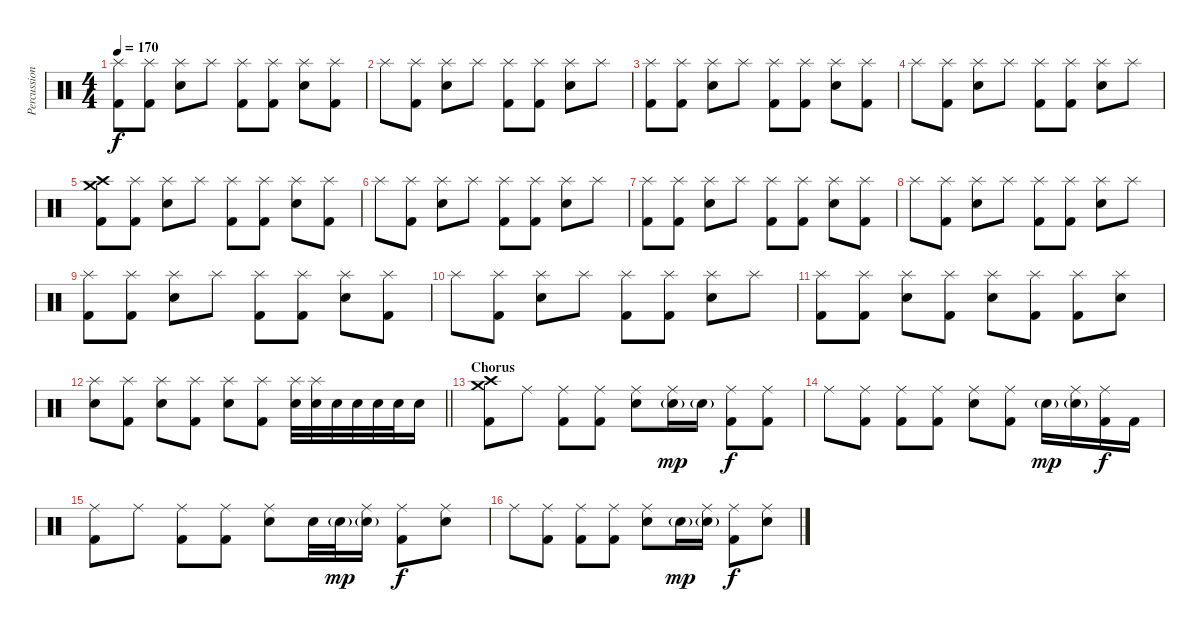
\track ("Percussion" "Percussion") {instrument percussion}
\staff {score}
\articulation defaults
\ts (4 4)
\tempo 170
\clef neutral
\ks c
("Splash (hit)" "Kick (hit) 2").8{dy f} ("Splash (hit)" "Kick (hit) 2").8 ("Splash (hit)" "Electric Snare (hit)").8 "Splash (hit)".8 ("Splash (hit)" "Kick (hit) 2").8 ("Splash (hit)" "Kick (hit) 2").8 ("Splash (hit)" "Electric Snare (hit)").8 ("Splash (hit)" "Kick (hit) 2").8 |
"Splash (hit)".8 ("Splash (hit)" "Kick (hit) 2").8 ("Splash (hit)" "Electric Snare (hit)").8 "Splash (hit)".8 ("Splash (hit)" "Kick (hit) 2").8 ("Splash (hit)" "Kick (hit) 2").8 ("Splash (hit)" "Electric Snare (hit)").8 "Splash (hit)".8 |
("Splash (hit)" "Kick (hit) 2").8 ("Splash (hit)" "Kick (hit) 2").8 ("Splash (hit)" "Electric Snare (hit)").8 "Splash (hit)".8 ("Splash (hit)" "Kick (hit) 2").8 ("Splash (hit)" "Kick (hit) 2").8 ("Splash (hit)" "Electric Snare (hit)").8 ("Splash (hit)" "Kick (hit) 2").8 |
"Splash (hit)".8 ("Splash (hit)" "Kick (hit) 2").8 ("Splash (hit)" "Electric Snare (hit)").8 "Splash (hit)".8 ("Splash (hit)" "Kick (hit) 2").8 ("Splash (hit)" "Kick (hit) 2").8 ("Splash (hit)" "Electric Snare (hit)").8 "Splash (hit)".8 |
("Crash medium (hit)" "Crash high (hit)" "Kick (hit) 2").8 ("Splash (hit)" "Kick (hit) 2").8 ("Splash (hit)" "Electric Snare (hit)").8 "Splash (hit)".8 ("Splash (hit)" "Kick (hit) 2").8 ("Splash (hit)" "Kick (hit) 2").8 ("Splash (hit)" "Electric Snare (hit)").8 ("Splash (hit)" "Kick (hit) 2").8 |
"Splash (hit)".8 ("Splash (hit)" "Kick (hit) 2").8 ("Splash (hit)" "Electric Snare (hit)").8 "Splash (hit)".8 ("Splash (hit)" "Kick (hit) 2").8 ("Splash (hit)" "Kick (hit) 2").8 ("Splash (hit)" "Electric Snare (hit)").8 "Splash (hit)".8 |
("Splash (hit)" "Kick (hit) 2").8 ("Splash (hit)" "Kick (hit) 2").8 ("Splash (hit)" "Electric Snare (hit)").8 "Splash (hit)".8 ("Splash (hit)" "Kick (hit) 2").8 ("Splash (hit)" "Kick (hit) 2").8 ("Splash (hit)" "Electric Snare (hit)").8 ("Splash (hit)" "Kick (hit) 2").8 |
"Splash (hit)".8 ("Splash (hit)" "Kick (hit) 2").8 ("Splash (hit)" "Electric Snare (hit)").8 "Splash (hit)".8 ("Splash (hit)" "Kick (hit) 2").8 ("Splash (hit)" "Kick (hit) 2").8 ("Splash (hit)" "Electric Snare (hit)").8 "Splash (hit)".8 |
("Splash (hit)" "Kick (hit) 2").8 ("Splash (hit)" "Kick (hit) 2").8 ("Splash (hit)" "Electric Snare (hit)").8 "Splash (hit)".8 ("Splash (hit)" "Kick (hit) 2").8 ("Splash (hit)" "Kick (hit) 2").8 ("Splash (hit)" "Electric Snare (hit)").8 ("Splash (hit)" "Kick (hit) 2").8 |
"Splash (hit)".8 ("Splash (hit)" "Kick (hit) 2").8 ("Splash (hit)" "Electric Snare (hit)").8 "Splash (hit)".8 ("Splash (hit)" "Kick (hit) 2").8 ("Splash (hit)" "Kick (hit) 2").8 ("Splash (hit)" "Electric Snare (hit)").8 "Splash (hit)".8 |
("Splash (hit)" "Kick (hit) 2").8 ("Splash (hit)" "Kick (hit) 2").8 ("Splash (hit)" "Electric Snare (hit)").8 ("Splash (hit)" "Kick (hit) 2").8 ("Splash (hit)" "Electric Snare (hit)").8 ("Splash (hit)" "Kick (hit) 2").8 ("Splash (hit)" "Kick (hit) 2").8 ("Splash (hit)" "Electric Snare (hit)").8 |
\barLineRight lightlight
("Splash (hit)" "Electric Snare (hit)").8 ("Splash (hit)" "Kick (hit) 2").8 ("Splash (hit)" "Electric Snare (hit)").8 ("Splash (hit)" "Kick (hit) 2").8 ("Splash (hit)" "Electric Snare (hit)").8 ("Splash (hit)" "Kick (hit) 2").8 ("Splash (hit)" "Electric Snare (hit)").32 ("Splash (hit)" "Electric Snare (hit)").32 "Electric Snare (hit)".32 "Electric Snare (hit)".32 "Electric Snare (hit)".32 "Electric Snare (hit)".32 "Electric Snare (hit)".16 |
\section ("" "Chorus")
("Crash medium (hit)" "Crash high (hit)" "Kick (hit) 2").8 "Ride (middle)".8 ("Ride (middle)" "Kick (hit) 2").8 ("Ride (middle)" "Kick (hit) 2").8 ("Ride (middle)" "Electric Snare (hit)").8 ("Ride (middle)" "Electric Snare (hit)"{g}).16{dy mp} "Electric Snare (hit)"{g}.16 ("Ride (middle)" "Kick (hit) 2").8{dy f} ("Ride (middle)" "Kick (hit) 2").8 |
"Ride (middle)".8 ("Ride (middle)" "Kick (hit) 2").8 ("Ride (middle)" "Kick (hit) 2").8 ("Ride (middle)" "Kick (hit) 2").8 ("Ride (middle)" "Electric Snare (hit)").8 ("Ride (middle)" "Kick (hit) 2").8 "Electric Snare (hit)"{g}.16{dy mp} ("Ride (middle)" "Electric Snare (hit)"{g}).16 ("Ride (middle)" "Kick (hit) 2").16{dy f} "Kick (hit) 2".16 |
("Ride (middle)" "Kick (hit) 2").8 "Ride (middle)".8 ("Ride (middle)" "Kick (hit) 2").8 ("Ride (middle)" "Kick (hit) 2").8 ("Ride (middle)" "Electric Snare (hit)").8 "Electric Snare (hit)".32 "Electric Snare (hit)"{g}.32{dy mp} ("Ride (middle)" "Electric Snare (hit)"{g}).16 ("Ride (middle)" "Kick (hit) 2").8{dy f} ("Ride (middle)" "Electric Snare (hit)").8 |
"Ride (middle)".8 ("Ride (middle)" "Kick (hit) 2").8 ("Ride (middle)" "Kick (hit) 2").8 ("Ride (middle)" "Kick (hit) 2").8 ("Ride (middle)" "Electric Snare (hit)").8 "Electric Snare (hit)"{g}.16{dy mp} ("Ride (middle)" "Electric Snare (hit)"{g}).16 ("Ride (middle)" "Kick (hit) 2").8{dy f} ("Ride (middle)" "Electric Snare (hit)").8
